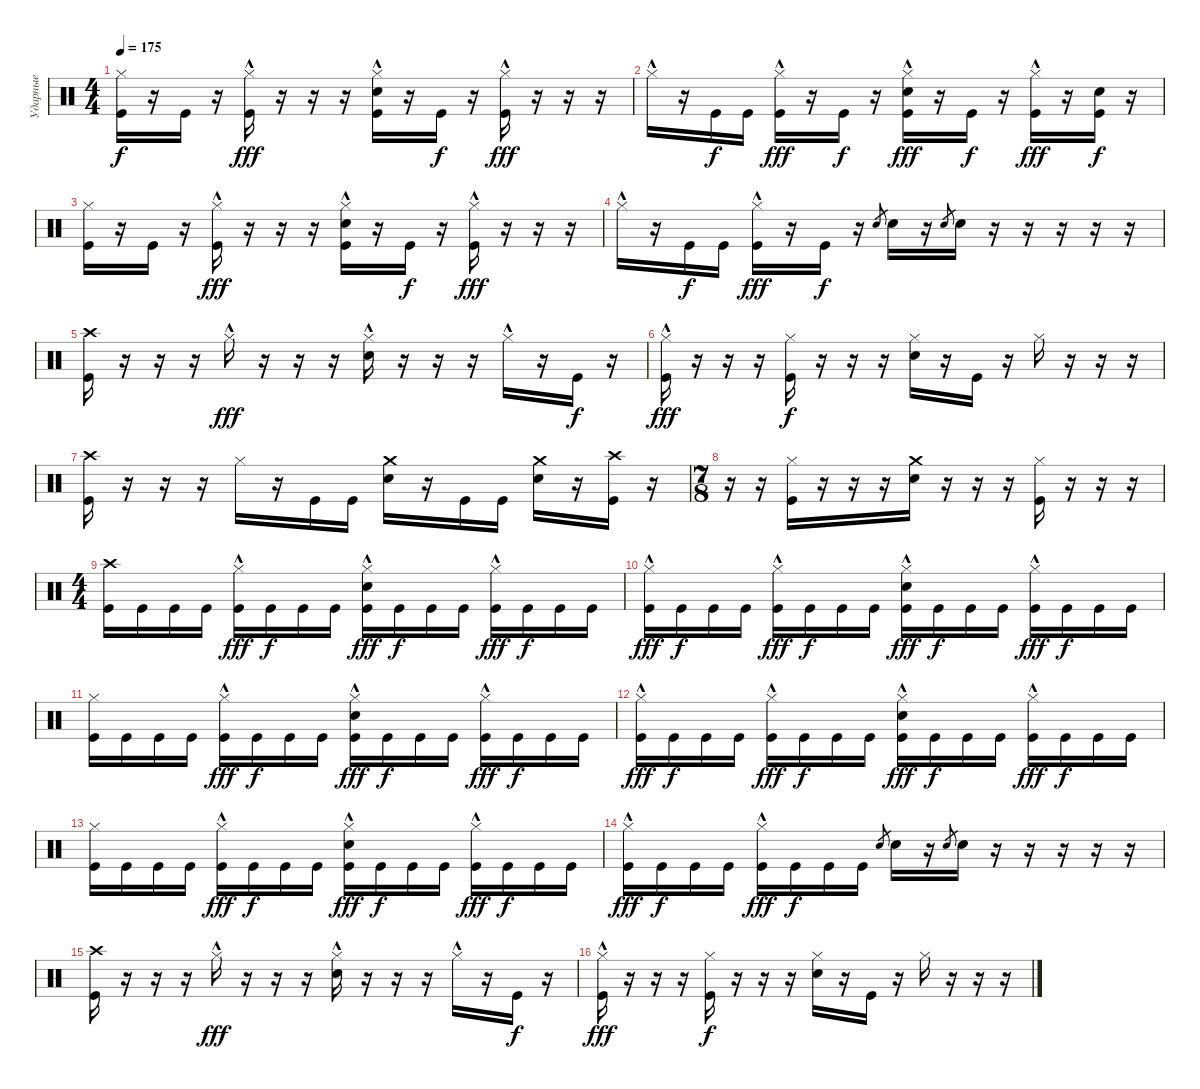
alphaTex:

\track ("Ударные" "Ударные") {instrument percussion}
\staff {score}
\articulation defaults
\ts (4 4)
\tempo 175
\clef neutral
\ks c
("Hi-Hat (closed)" "Kick (hit)").16{dy f} r.16 "Kick (hit)".16 r.16 ("Hi-Hat (closed)"{hac} "Kick (hit)").16{dy fff} r.16 r.16 r.16 ("Hi-Hat (closed)"{hac} "Electric Snare (hit)" "Kick (hit)").16 r.16 "Kick (hit)".16{dy f} r.16 ("Hi-Hat (closed)"{hac} "Kick (hit)").16{dy fff} r.16 r.16 r.16 |
"Hi-Hat (closed)"{hac}.16 r.16 "Kick (hit)".16{dy f} "Kick (hit)".16 ("Hi-Hat (closed)"{hac} "Kick (hit)").16{dy fff} r.16 "Kick (hit)".16{dy f} r.16 ("Electric Snare (hit)" "Hi-Hat (closed)"{hac} "Kick (hit)").16{dy fff} r.16 "Kick (hit)".16{dy f} r.16 ("Hi-Hat (closed)"{hac} "Kick (hit)").16{dy fff} r.16 ("Electric Snare (hit)" "Kick (hit)").16{dy f} r.16 |
("Hi-Hat (closed)" "Kick (hit)").16 r.16 "Kick (hit)".16 r.16 ("Hi-Hat (closed)"{hac} "Kick (hit)").16{dy fff} r.16 r.16 r.16 ("Hi-Hat (closed)"{hac} "Electric Snare (hit)" "Kick (hit)").16 r.16 "Kick (hit)".16{dy f} r.16 ("Hi-Hat (closed)"{hac} "Kick (hit)").16{dy fff} r.16 r.16 r.16 |
"Hi-Hat (closed)"{hac}.16 r.16 "Kick (hit)".16{dy f} "Kick (hit)".16 ("Hi-Hat (closed)"{hac} "Kick (hit)").16{dy fff} r.16 "Kick (hit)".16{dy f} r.16 "Electric Snare (hit)".8{gr} "Electric Snare (hit)".16 r.16 "Electric Snare (hit)".8{gr} "Electric Snare (hit)".16 r.16 r.16 r.16 r.16 r.16 |
("Crash high (hit)" "Kick (hit)").16 r.16 r.16 r.16 "Hi-Hat (closed)"{hac}.16{dy fff} r.16 r.16 r.16 ("Hi-Hat (closed)"{hac} "Electric Snare (hit)").16 r.16 r.16 r.16 "Hi-Hat (closed)"{hac}.16 r.16 "Kick (hit)".16{dy f} r.16 |
("Hi-Hat (closed)"{hac} "Kick (hit)").16{dy fff} r.16 r.16 r.16 ("Hi-Hat (closed)" "Kick (hit)").16{dy f} r.16 r.16 r.16 ("Hi-Hat (closed)" "Electric Snare (hit)").16 r.16 "Kick (hit)".16 r.16 "Hi-Hat (closed)".16 r.16 r.16 r.16 |
("Crash high (hit)" "Kick (hit)").16 r.16 r.16 r.16 "Hi-Hat (closed)".16 r.16 "Kick (hit)".16 "Kick (hit)".16 ("Crash medium (hit)" "Electric Snare (hit)").16 r.16 "Kick (hit)".16 "Kick (hit)".16 ("Crash medium (hit)" "Electric Snare (hit)").16 r.16 ("Crash high (hit)" "Kick (hit)").16 r.16 |
\ts (7 8)
r.16 r.16 ("Hi-Hat (closed)" "Kick (hit)").16 r.16 r.16 r.16 ("Crash medium (hit)" "Electric Snare (hit)").16 r.16 r.16 r.16 ("Hi-Hat (closed)" "Kick (hit)").16 r.16 r.16 r.16 |
\ts (4 4)
("Crash high (hit)" "Kick (hit)").16 "Kick (hit)".16 "Kick (hit)".16 "Kick (hit)".16 ("Hi-Hat (closed)"{hac} "Kick (hit)").16{dy fff} "Kick (hit)".16{dy f} "Kick (hit)".16 "Kick (hit)".16 ("Hi-Hat (closed)"{hac} "Electric Snare (hit)" "Kick (hit)").16{dy fff} "Kick (hit)".16{dy f} "Kick (hit)".16 "Kick (hit)".16 ("Hi-Hat (closed)"{hac} "Kick (hit)").16{dy fff} "Kick (hit)".16{dy f} "Kick (hit)".16 "Kick (hit)".16 |
("Hi-Hat (closed)"{hac} "Kick (hit)").16{dy fff} "Kick (hit)".16{dy f} "Kick (hit)".16 "Kick (hit)".16 ("Hi-Hat (closed)"{hac} "Kick (hit)").16{dy fff} "Kick (hit)".16{dy f} "Kick (hit)".16 "Kick (hit)".16 ("Electric Snare (hit)" "Hi-Hat (closed)"{hac} "Kick (hit)").16{dy fff} "Kick (hit)".16{dy f} "Kick (hit)".16 "Kick (hit)".16 ("Hi-Hat (closed)"{hac} "Kick (hit)").16{dy fff} "Kick (hit)".16{dy f} "Kick (hit)".16 "Kick (hit)".16 |
("Hi-Hat (closed)" "Kick (hit)").16 "Kick (hit)".16 "Kick (hit)".16 "Kick (hit)".16 ("Hi-Hat (closed)"{hac} "Kick (hit)").16{dy fff} "Kick (hit)".16{dy f} "Kick (hit)".16 "Kick (hit)".16 ("Hi-Hat (closed)"{hac} "Electric Snare (hit)" "Kick (hit)").16{dy fff} "Kick (hit)".16{dy f} "Kick (hit)".16 "Kick (hit)".16 ("Hi-Hat (closed)"{hac} "Kick (hit)").16{dy fff} "Kick (hit)".16{dy f} "Kick (hit)".16 "Kick (hit)".16 |
("Hi-Hat (closed)"{hac} "Kick (hit)").16{dy fff} "Kick (hit)".16{dy f} "Kick (hit)".16 "Kick (hit)".16 ("Hi-Hat (closed)"{hac} "Kick (hit)").16{dy fff} "Kick (hit)".16{dy f} "Kick (hit)".16 "Kick (hit)".16 ("Electric Snare (hit)" "Hi-Hat (closed)"{hac} "Kick (hit)").16{dy fff} "Kick (hit)".16{dy f} "Kick (hit)".16 "Kick (hit)".16 ("Hi-Hat (closed)"{hac} "Kick (hit)").16{dy fff} "Kick (hit)".16{dy f} "Kick (hit)".16 "Kick (hit)".16 |
("Hi-Hat (closed)" "Kick (hit)").16 "Kick (hit)".16 "Kick (hit)".16 "Kick (hit)".16 ("Hi-Hat (closed)"{hac} "Kick (hit)").16{dy fff} "Kick (hit)".16{dy f} "Kick (hit)".16 "Kick (hit)".16 ("Hi-Hat (closed)"{hac} "Electric Snare (hit)" "Kick (hit)").16{dy fff} "Kick (hit)".16{dy f} "Kick (hit)".16 "Kick (hit)".16 ("Hi-Hat (closed)"{hac} "Kick (hit)").16{dy fff} "Kick (hit)".16{dy f} "Kick (hit)".16 "Kick (hit)".16 |
("Hi-Hat (closed)"{hac} "Kick (hit)").16{dy fff} "Kick (hit)".16{dy f} "Kick (hit)".16 "Kick (hit)".16 ("Hi-Hat (closed)"{hac} "Kick (hit)").16{dy fff} "Kick (hit)".16{dy f} "Kick (hit)".16 "Kick (hit)".16 "Electric Snare (hit)".8{gr} "Electric Snare (hit)".16 r.16 "Electric Snare (hit)".8{gr} "Electric Snare (hit)".16 r.16 r.16 r.16 r.16 r.16 |
("Crash high (hit)" "Kick (hit)").16 r.16 r.16 r.16 "Hi-Hat (closed)"{hac}.16{dy fff} r.16 r.16 r.16 ("Hi-Hat (closed)"{hac} "Electric Snare (hit)").16 r.16 r.16 r.16 "Hi-Hat (closed)"{hac}.16 r.16 "Kick (hit)".16{dy f} r.16 |
("Hi-Hat (closed)"{hac} "Kick (hit)").16{dy fff} r.16 r.16 r.16 ("Hi-Hat (closed)" "Kick (hit)").16{dy f} r.16 r.16 r.16 ("Hi-Hat (closed)" "Electric Snare (hit)").16 r.16 "Kick (hit)".16 r.16 "Hi-Hat (closed)".16 r.16 r.16 r.16
